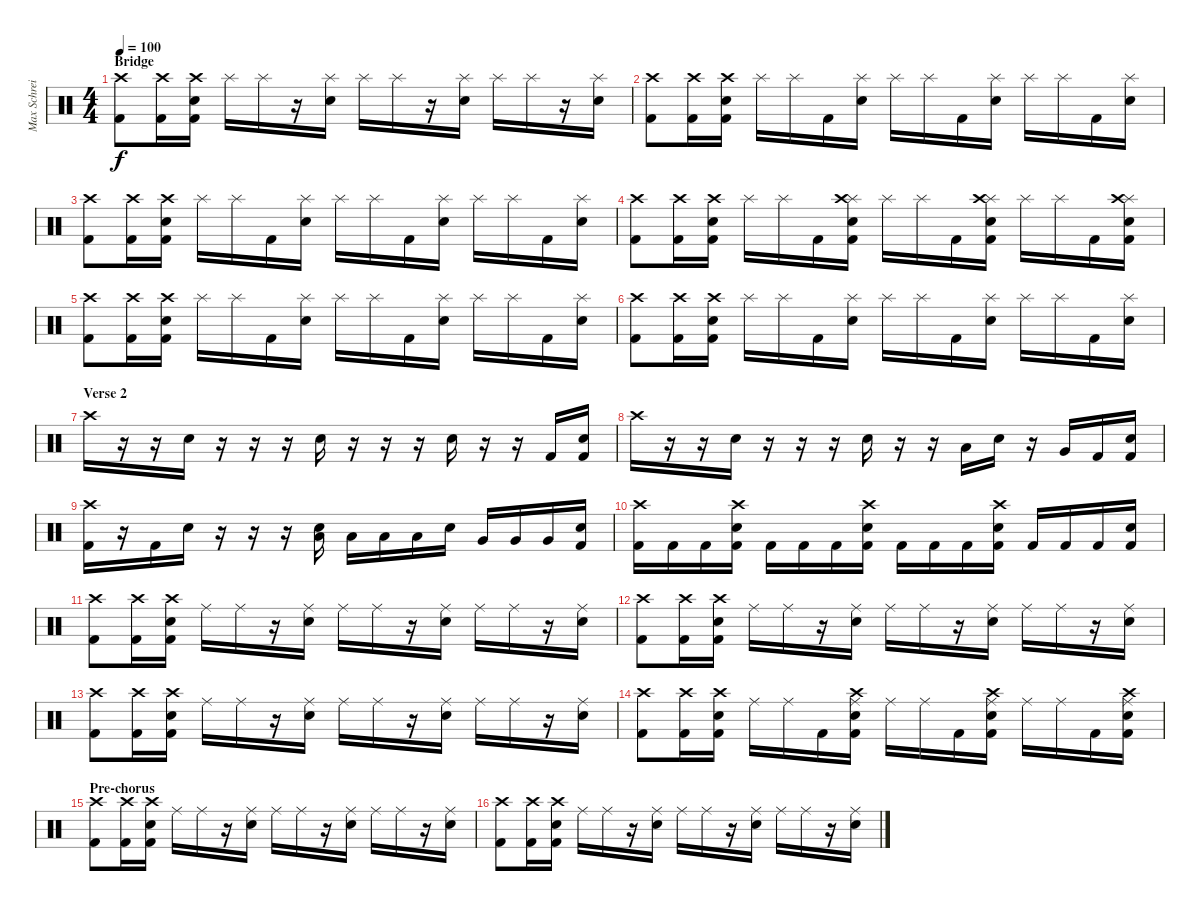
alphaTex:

\track ("Max Schreiber " "Max Schrei") {instrument percussion}
\staff {score}
\articulation defaults
\ts (4 4)
\section ("" "Bridge")
\tempo 100
\clef neutral
\ks c
("Crash high (hit)" "Kick (hit) 2").8{dy f} ("Crash high (hit)" "Kick (hit) 2").16 ("Crash high (hit)" "Electric Snare (hit)" "Kick (hit) 2").16 "Splash (hit)".16 "Splash (hit)".16 r.16 ("Splash (hit)" "Electric Snare (hit)").16 "Splash (hit)".16 "Splash (hit)".16 r.16 ("Splash (hit)" "Electric Snare (hit)").16 "Splash (hit)".16 "Splash (hit)".16 r.16 ("Splash (hit)" "Electric Snare (hit)").16 |
("Crash high (hit)" "Kick (hit) 2").8 ("Crash high (hit)" "Kick (hit) 2").16 ("Crash high (hit)" "Electric Snare (hit)" "Kick (hit) 2").16 "Splash (hit)".16 "Splash (hit)".16 "Kick (hit) 2".16 ("Splash (hit)" "Electric Snare (hit)").16 "Splash (hit)".16 "Splash (hit)".16 "Kick (hit) 2".16 ("Splash (hit)" "Electric Snare (hit)").16 "Splash (hit)".16 "Splash (hit)".16 "Kick (hit) 2".16 ("Splash (hit)" "Electric Snare (hit)").16 |
("Crash high (hit)" "Kick (hit) 2").8 ("Crash high (hit)" "Kick (hit) 2").16 ("Crash high (hit)" "Electric Snare (hit)" "Kick (hit) 2").16 "Splash (hit)".16 "Splash (hit)".16 "Kick (hit) 2".16 ("Splash (hit)" "Electric Snare (hit)").16 "Splash (hit)".16 "Splash (hit)".16 "Kick (hit) 2".16 ("Splash (hit)" "Electric Snare (hit)").16 "Splash (hit)".16 "Splash (hit)".16 "Kick (hit) 2".16 ("Splash (hit)" "Electric Snare (hit)").16 |
("Crash high (hit)" "Kick (hit) 2").8 ("Crash high (hit)" "Kick (hit) 2").16 ("Crash high (hit)" "Electric Snare (hit)" "Kick (hit) 2").16 "Splash (hit)".16 "Splash (hit)".16 "Kick (hit) 2".16 ("Splash (hit)" "Crash high (hit)" "Electric Snare (hit)" "Kick (hit) 2").16 "Splash (hit)".16 "Splash (hit)".16 "Kick (hit) 2".16 ("Splash (hit)" "Crash high (hit)" "Electric Snare (hit)" "Kick (hit) 2").16 "Splash (hit)".16 "Splash (hit)".16 "Kick (hit) 2".16 ("Splash (hit)" "Crash high (hit)" "Electric Snare (hit)" "Kick (hit) 2").16 |
("Crash high (hit)" "Kick (hit) 2").8 ("Crash high (hit)" "Kick (hit) 2").16 ("Crash high (hit)" "Electric Snare (hit)" "Kick (hit) 2").16 "Splash (hit)".16 "Splash (hit)".16 "Kick (hit) 2".16 ("Splash (hit)" "Electric Snare (hit)").16 "Splash (hit)".16 "Splash (hit)".16 "Kick (hit) 2".16 ("Splash (hit)" "Electric Snare (hit)").16 "Splash (hit)".16 "Splash (hit)".16 "Kick (hit) 2".16 ("Splash (hit)" "Electric Snare (hit)").16 |
("Crash high (hit)" "Kick (hit) 2").8 ("Crash high (hit)" "Kick (hit) 2").16 ("Crash high (hit)" "Electric Snare (hit)" "Kick (hit) 2").16 "Splash (hit)".16 "Splash (hit)".16 "Kick (hit) 2".16 ("Splash (hit)" "Electric Snare (hit)").16 "Splash (hit)".16 "Splash (hit)".16 "Kick (hit) 2".16 ("Splash (hit)" "Electric Snare (hit)").16 "Splash (hit)".16 "Splash (hit)".16 "Kick (hit) 2".16 ("Splash (hit)" "Electric Snare (hit)").16 |
\section ("" "Verse 2")
"Crash high (hit)".16 r.16 r.16 "Electric Snare (hit)".16 r.16 r.16 r.16 "Electric Snare (hit)".16 r.16 r.16 r.16 "Electric Snare (hit)".16 r.16 r.16 "Kick (hit) 2".16 ("Electric Snare (hit)" "Kick (hit) 2").16 |
"Crash high (hit)".16 r.16 r.16 "Electric Snare (hit)".16 r.16 r.16 r.16 "Electric Snare (hit)".16 r.16 r.16 "Low Tom (hit)".16 "Electric Snare (hit)".16 r.16 "Very Low Tom (hit)".16 "Kick (hit) 2".16 ("Electric Snare (hit)" "Kick (hit) 2").16 |
("Crash high (hit)" "Kick (hit) 2").16 r.16 "Kick (hit) 2".16 "Electric Snare (hit)".16 r.16 r.16 r.16 ("Low Tom (hit)" "Electric Snare (hit)").16 "Low Tom (hit)".16 "Low Tom (hit)".16 "Low Tom (hit)".16 "Electric Snare (hit)".16 "Very Low Tom (hit)".16 "Very Low Tom (hit)".16 "Very Low Tom (hit)".16 ("Electric Snare (hit)" "Kick (hit) 2").16 |
("Crash high (hit)" "Kick (hit) 2").16 "Kick (hit) 2".16 "Kick (hit) 2".16 ("Crash high (hit)" "Electric Snare (hit)" "Kick (hit) 2").16 "Kick (hit) 2".16 "Kick (hit) 2".16 "Kick (hit) 2".16 ("Crash high (hit)" "Electric Snare (hit)" "Kick (hit) 2").16 "Kick (hit) 2".16 "Kick (hit) 2".16 "Kick (hit) 2".16 ("Crash high (hit)" "Electric Snare (hit)" "Kick (hit) 2").16 "Kick (hit) 2".16 "Kick (hit) 2".16 "Kick (hit) 2".16 ("Electric Snare (hit)" "Kick (hit) 2").16 |
("Crash high (hit)" "Kick (hit) 2").8 ("Crash high (hit)" "Kick (hit) 2").16 ("Crash high (hit)" "Electric Snare (hit)" "Kick (hit) 2").16 "Ride (middle)".16 "Ride (middle)".16 r.16 ("Ride (middle)" "Electric Snare (hit)").16 "Ride (middle)".16 "Ride (middle)".16 r.16 ("Ride (middle)" "Electric Snare (hit)").16 "Ride (middle)".16 "Ride (middle)".16 r.16 ("Ride (middle)" "Electric Snare (hit)").16 |
("Crash high (hit)" "Kick (hit) 2").8 ("Crash high (hit)" "Kick (hit) 2").16 ("Crash high (hit)" "Electric Snare (hit)" "Kick (hit) 2").16 "Ride (middle)".16 "Ride (middle)".16 r.16 ("Ride (middle)" "Electric Snare (hit)").16 "Ride (middle)".16 "Ride (middle)".16 r.16 ("Ride (middle)" "Electric Snare (hit)").16 "Ride (middle)".16 "Ride (middle)".16 r.16 ("Ride (middle)" "Electric Snare (hit)").16 |
("Crash high (hit)" "Kick (hit) 2").8 ("Crash high (hit)" "Kick (hit) 2").16 ("Crash high (hit)" "Electric Snare (hit)" "Kick (hit) 2").16 "Ride (middle)".16 "Ride (middle)".16 r.16 ("Ride (middle)" "Electric Snare (hit)").16 "Ride (middle)".16 "Ride (middle)".16 r.16 ("Ride (middle)" "Electric Snare (hit)").16 "Ride (middle)".16 "Ride (middle)".16 r.16 ("Ride (middle)" "Electric Snare (hit)").16 |
("Crash high (hit)" "Kick (hit) 2").8 ("Crash high (hit)" "Kick (hit) 2").16 ("Crash high (hit)" "Electric Snare (hit)" "Kick (hit) 2").16 "Ride (middle)".16 "Ride (middle)".16 "Kick (hit) 2".16 ("Ride (middle)" "Crash high (hit)" "Electric Snare (hit)" "Kick (hit) 2").16 "Ride (middle)".16 "Ride (middle)".16 "Kick (hit) 2".16 ("Ride (middle)" "Crash high (hit)" "Electric Snare (hit)" "Kick (hit) 2").16 "Ride (middle)".16 "Ride (middle)".16 "Kick (hit) 2".16 ("Ride (middle)" "Crash high (hit)" "Electric Snare (hit)" "Kick (hit) 2").16 |
\section ("" "Pre-chorus")
("Crash high (hit)" "Kick (hit) 2").8 ("Crash high (hit)" "Kick (hit) 2").16 ("Crash high (hit)" "Electric Snare (hit)" "Kick (hit) 2").16 "Ride (middle)".16 "Ride (middle)".16 r.16 ("Ride (middle)" "Electric Snare (hit)").16 "Ride (middle)".16 "Ride (middle)".16 r.16 ("Ride (middle)" "Electric Snare (hit)").16 "Ride (middle)".16 "Ride (middle)".16 r.16 ("Ride (middle)" "Electric Snare (hit)").16 |
("Crash high (hit)" "Kick (hit) 2").8 ("Crash high (hit)" "Kick (hit) 2").16 ("Crash high (hit)" "Electric Snare (hit)" "Kick (hit) 2").16 "Ride (middle)".16 "Ride (middle)".16 r.16 ("Ride (middle)" "Electric Snare (hit)").16 "Ride (middle)".16 "Ride (middle)".16 r.16 ("Ride (middle)" "Electric Snare (hit)").16 "Ride (middle)".16 "Ride (middle)".16 r.16 ("Ride (middle)" "Electric Snare (hit)").16
